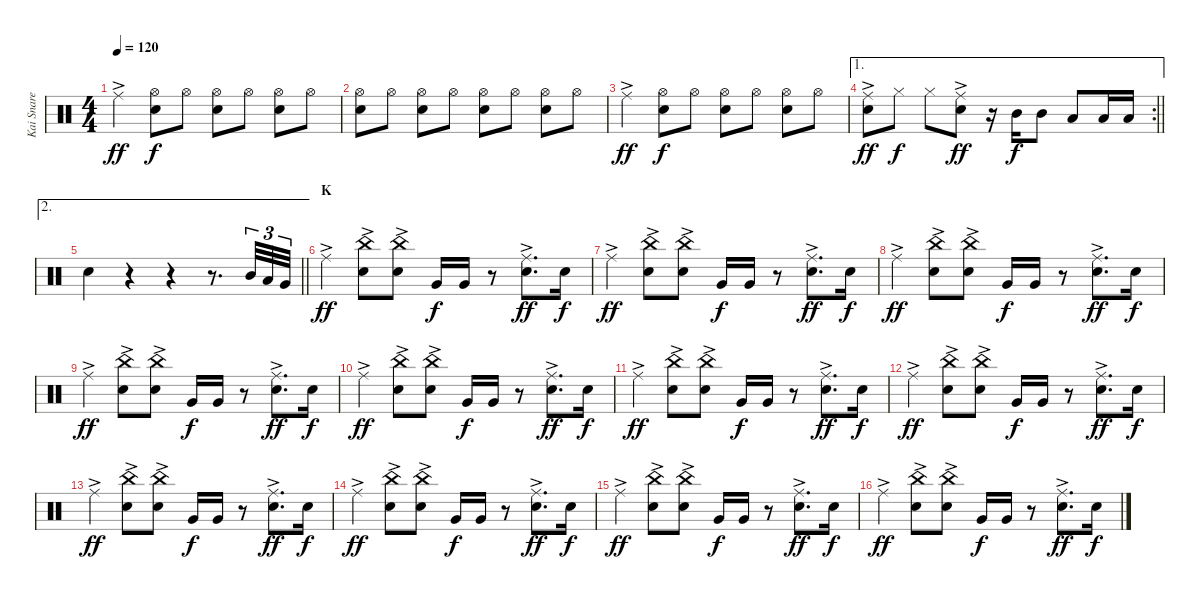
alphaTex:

\track ("Kai Snare" "Kai Snare") {instrument percussion}
\staff {score}
\articulation defaults
\ts (4 4)
\tempo 120
\clef neutral
\ks c "Ride (middle)"{ac}.4{dy ff}
("Hi-Hat (open)" "Snare (hit) 2").8{dy f} "Hi-Hat (open)".8 ("Hi-Hat (open)" "Snare (hit) 2").8 "Hi-Hat (open)".8 ("Hi-Hat (open)" "Snare (hit) 2").8 "Hi-Hat (open)".8 |
("Hi-Hat (open)" "Snare (hit) 2").8 "Hi-Hat (open)".8 ("Hi-Hat (open)" "Snare (hit) 2").8 "Hi-Hat (open)".8 ("Hi-Hat (open)" "Snare (hit) 2").8 "Hi-Hat (open)".8 ("Hi-Hat (open)" "Snare (hit) 2").8 "Hi-Hat (open)".8 |
"Ride (middle)"{ac}.4{dy ff} ("Hi-Hat (open)" "Snare (hit) 2").8{dy f} "Hi-Hat (open)".8 ("Hi-Hat (open)" "Snare (hit) 2").8 "Hi-Hat (open)".8 ("Hi-Hat (open)" "Snare (hit) 2").8 "Hi-Hat (open)".8 |
\ae 1
\rc 2
\barLineRight lightlight
("Ride (middle)"{ac} "Snare (hit) 2").8{dy ff} "Hi-Hat (closed)".8{dy f} "Hi-Hat (closed)".8 ("Ride (middle)"{ac} "Snare (hit) 2").8{dy ff} r.16 "Mid Tom (hit)".16{dy f} "Mid Tom (hit)".8 "Low Tom (hit)".8 "Low Tom (hit)".16 "Low Tom (hit)".16 |
\ae 2
\barLineRight lightlight "Snare (hit) 2".4
r.4 r.4 r.8{d} "Mid Tom (hit)".32{tu (3 2)} "Low Tom (hit)".32{tu (3 2)} "Very Low Tom (hit)".32{tu (3 2)} |
\section ("" "K")
"Ride (middle)"{ac}.4{dy ff} ("China (hit)"{ac} "Snare (hit) 2").8 ("China (hit)"{ac} "Snare (hit) 2").8 "Very Low Tom (hit)".16{dy f} "Very Low Tom (hit)".16 r.8 ("Ride (middle)"{ac} "Snare (hit) 2").8{d dy ff} "Snare (hit) 2".16{dy f} |
"Ride (middle)"{ac}.4{dy ff} ("China (hit)"{ac} "Snare (hit) 2").8 ("China (hit)"{ac} "Snare (hit) 2").8 "Very Low Tom (hit)".16{dy f} "Very Low Tom (hit)".16 r.8 ("Ride (middle)"{ac} "Snare (hit) 2").8{d dy ff} "Snare (hit) 2".16{dy f} |
"Ride (middle)"{ac}.4{dy ff} ("China (hit)"{ac} "Snare (hit) 2").8 ("China (hit)"{ac} "Snare (hit) 2").8 "Very Low Tom (hit)".16{dy f} "Very Low Tom (hit)".16 r.8 ("Ride (middle)"{ac} "Snare (hit) 2").8{d dy ff} "Snare (hit) 2".16{dy f} |
"Ride (middle)"{ac}.4{dy ff} ("China (hit)"{ac} "Snare (hit) 2").8 ("China (hit)"{ac} "Snare (hit) 2").8 "Very Low Tom (hit)".16{dy f} "Very Low Tom (hit)".16 r.8 ("Ride (middle)"{ac} "Snare (hit) 2").8{d dy ff} "Snare (hit) 2".16{dy f} |
"Ride (middle)"{ac}.4{dy ff} ("China (hit)"{ac} "Snare (hit) 2").8 ("China (hit)"{ac} "Snare (hit) 2").8 "Very Low Tom (hit)".16{dy f} "Very Low Tom (hit)".16 r.8 ("Ride (middle)"{ac} "Snare (hit) 2").8{d dy ff} "Snare (hit) 2".16{dy f} |
"Ride (middle)"{ac}.4{dy ff} ("China (hit)"{ac} "Snare (hit) 2").8 ("China (hit)"{ac} "Snare (hit) 2").8 "Very Low Tom (hit)".16{dy f} "Very Low Tom (hit)".16 r.8 ("Ride (middle)"{ac} "Snare (hit) 2").8{d dy ff} "Snare (hit) 2".16{dy f} |
"Ride (middle)"{ac}.4{dy ff} ("China (hit)"{ac} "Snare (hit) 2").8 ("China (hit)"{ac} "Snare (hit) 2").8 "Very Low Tom (hit)".16{dy f} "Very Low Tom (hit)".16 r.8 ("Ride (middle)"{ac} "Snare (hit) 2").8{d dy ff} "Snare (hit) 2".16{dy f} |
"Ride (middle)"{ac}.4{dy ff} ("China (hit)"{ac} "Snare (hit) 2").8 ("China (hit)"{ac} "Snare (hit) 2").8 "Very Low Tom (hit)".16{dy f} "Very Low Tom (hit)".16 r.8 ("Ride (middle)"{ac} "Snare (hit) 2").8{d dy ff} "Snare (hit) 2".16{dy f} |
"Ride (middle)"{ac}.4{dy ff} ("China (hit)"{ac} "Snare (hit) 2").8 ("China (hit)"{ac} "Snare (hit) 2").8 "Very Low Tom (hit)".16{dy f} "Very Low Tom (hit)".16 r.8 ("Ride (middle)"{ac} "Snare (hit) 2").8{d dy ff} "Snare (hit) 2".16{dy f} |
"Ride (middle)"{ac}.4{dy ff} ("China (hit)"{ac} "Snare (hit) 2").8 ("China (hit)"{ac} "Snare (hit) 2").8 "Very Low Tom (hit)".16{dy f} "Very Low Tom (hit)".16 r.8 ("Ride (middle)"{ac} "Snare (hit) 2").8{d dy ff} "Snare (hit) 2".16{dy f} |
"Ride (middle)"{ac}.4{dy ff} ("China (hit)"{ac} "Snare (hit) 2").8 ("China (hit)"{ac} "Snare (hit) 2").8 "Very Low Tom (hit)".16{dy f} "Very Low Tom (hit)".16 r.8 ("Ride (middle)"{ac} "Snare (hit) 2").8{d dy ff} "Snare (hit) 2".16{dy f}
